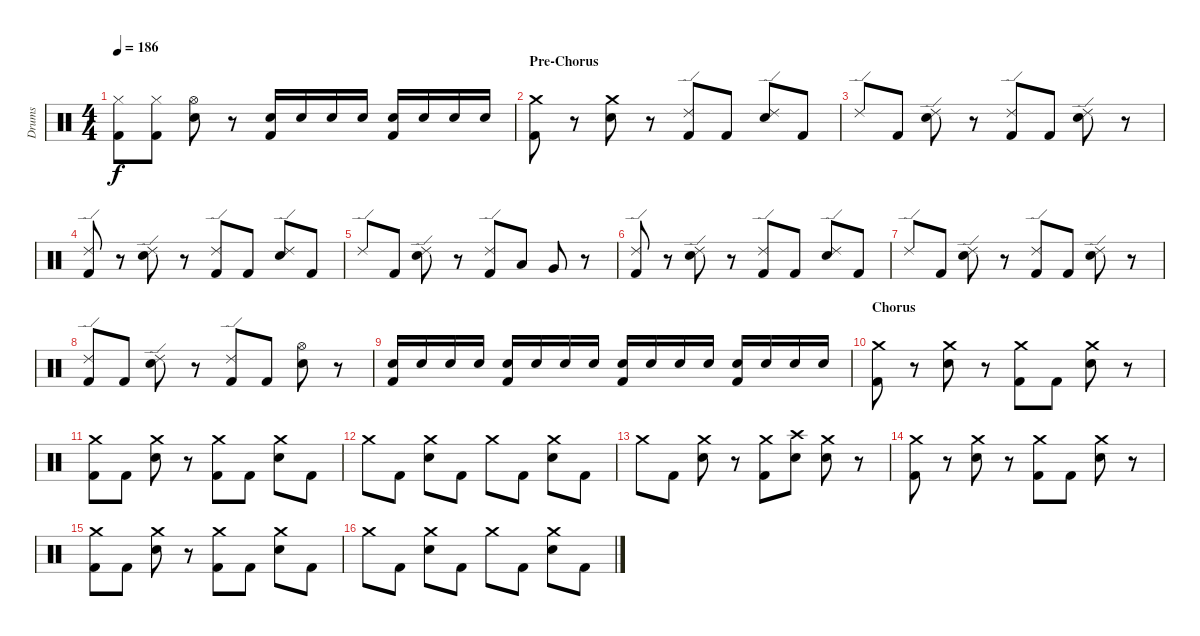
\track ("Drums" "Drums") {instrument percussion}
\staff {score}
\articulation defaults
\ts (4 4)
\tempo 186
\clef neutral
\ks c
("Hi-Hat (closed)" "Kick (hit) 2").8{dy f} ("Hi-Hat (closed)" "Kick (hit) 2").8 ("Hi-Hat (open)" "Electric Snare (hit)").8 r.8 ("Electric Snare (hit)" "Kick (hit) 2").16 "Electric Snare (hit)".16 "Electric Snare (hit)".16 "Electric Snare (hit)".16 ("Electric Snare (hit)" "Kick (hit) 2").16 "Electric Snare (hit)".16 "Electric Snare (hit)".16 "Electric Snare (hit)".16 |
\section ("" "Pre-Chorus")
("Crash medium (hit)" "Kick (hit) 2").8 r.8 ("Crash medium (hit)" "Electric Snare (hit)").8 r.8 ("Ride (edge) 2" "Kick (hit) 2").8 "Kick (hit) 2".8 ("Ride (edge) 2" "Electric Snare (hit)").8 "Kick (hit) 2".8 |
"Ride (edge) 2".8 "Kick (hit) 2".8 ("Ride (edge) 2" "Electric Snare (hit)").8 r.8 ("Ride (edge) 2" "Kick (hit) 2").8 "Kick (hit) 2".8 ("Ride (edge) 2" "Electric Snare (hit)").8 r.8 |
("Ride (edge) 2" "Kick (hit) 2").8 r.8 ("Ride (edge) 2" "Electric Snare (hit)").8 r.8 ("Ride (edge) 2" "Kick (hit) 2").8 "Kick (hit) 2".8 ("Ride (edge) 2" "Electric Snare (hit)").8 "Kick (hit) 2".8 |
"Ride (edge) 2".8 "Kick (hit) 2".8 ("Ride (edge) 2" "Electric Snare (hit)").8 r.8 ("Ride (edge) 2" "Kick (hit) 2").8 "Low Tom (hit)".8 "Very Low Tom (hit)".8 r.8 |
("Ride (edge) 2" "Kick (hit) 2").8 r.8 ("Ride (edge) 2" "Electric Snare (hit)").8 r.8 ("Ride (edge) 2" "Kick (hit) 2").8 "Kick (hit) 2".8 ("Ride (edge) 2" "Electric Snare (hit)").8 "Kick (hit) 2".8 |
"Ride (edge) 2".8 "Kick (hit) 2".8 ("Ride (edge) 2" "Electric Snare (hit)").8 r.8 ("Ride (edge) 2" "Kick (hit) 2").8 "Kick (hit) 2".8 ("Ride (edge) 2" "Electric Snare (hit)").8 r.8 |
("Ride (edge) 2" "Kick (hit) 2").8 "Kick (hit) 2".8 ("Ride (edge) 2" "Electric Snare (hit)").8 r.8 ("Ride (edge) 2" "Kick (hit) 2").8 "Kick (hit) 2".8 ("Hi-Hat (open)" "Electric Snare (hit)").8 r.8 |
("Electric Snare (hit)" "Kick (hit) 2").16 "Electric Snare (hit)".16 "Electric Snare (hit)".16 "Electric Snare (hit)".16 ("Electric Snare (hit)" "Kick (hit) 2").16 "Electric Snare (hit)".16 "Electric Snare (hit)".16 "Electric Snare (hit)".16 ("Electric Snare (hit)" "Kick (hit) 2").16 "Electric Snare (hit)".16 "Electric Snare (hit)".16 "Electric Snare (hit)".16 ("Electric Snare (hit)" "Kick (hit) 2").16 "Electric Snare (hit)".16 "Electric Snare (hit)".16 "Electric Snare (hit)".16 |
\section ("" "Chorus")
("Crash medium (hit)" "Kick (hit) 2").8 r.8 ("Crash medium (hit)" "Electric Snare (hit)").8 r.8 ("Crash medium (hit)" "Kick (hit) 2").8 "Kick (hit) 2".8 ("Crash medium (hit)" "Electric Snare (hit)").8 r.8 |
("Crash medium (hit)" "Kick (hit) 2").8 "Kick (hit) 2".8 ("Crash medium (hit)" "Electric Snare (hit)").8 r.8 ("Crash medium (hit)" "Kick (hit) 2").8 "Kick (hit) 2".8 ("Crash medium (hit)" "Electric Snare (hit)").8 "Kick (hit) 2".8 |
"Crash medium (hit)".8 "Kick (hit) 2".8 ("Crash medium (hit)" "Electric Snare (hit)").8 "Kick (hit) 2".8 "Crash medium (hit)".8 "Kick (hit) 2".8 ("Crash medium (hit)" "Electric Snare (hit)").8 "Kick (hit) 2".8 |
"Crash medium (hit)".8 "Kick (hit) 2".8 ("Crash medium (hit)" "Electric Snare (hit)").8 r.8 ("Crash medium (hit)" "Kick (hit) 2").8 ("Crash high (hit)" "Electric Snare (hit)").8 ("Crash medium (hit)" "Electric Snare (hit)").8 r.8 |
("Crash medium (hit)" "Kick (hit) 2").8 r.8 ("Crash medium (hit)" "Electric Snare (hit)").8 r.8 ("Crash medium (hit)" "Kick (hit) 2").8 "Kick (hit) 2".8 ("Crash medium (hit)" "Electric Snare (hit)").8 r.8 |
("Crash medium (hit)" "Kick (hit) 2").8 "Kick (hit) 2".8 ("Crash medium (hit)" "Electric Snare (hit)").8 r.8 ("Crash medium (hit)" "Kick (hit) 2").8 "Kick (hit) 2".8 ("Crash medium (hit)" "Electric Snare (hit)").8 "Kick (hit) 2".8 |
"Crash medium (hit)".8 "Kick (hit) 2".8 ("Crash medium (hit)" "Electric Snare (hit)").8 "Kick (hit) 2".8 "Crash medium (hit)".8 "Kick (hit) 2".8 ("Crash medium (hit)" "Electric Snare (hit)").8 "Kick (hit) 2".8
